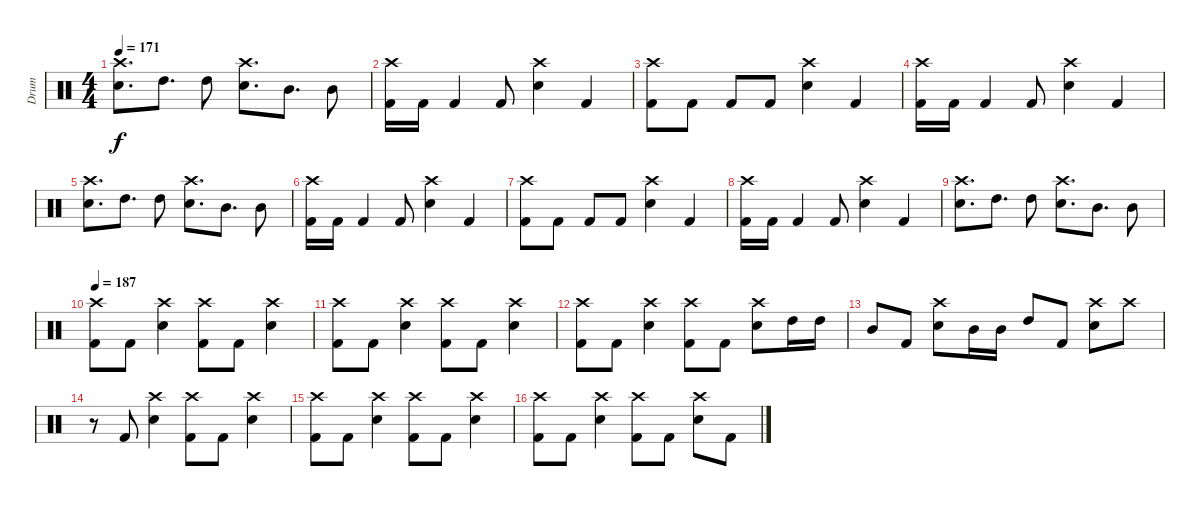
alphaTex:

\track ("Drum" "Drum") {instrument percussion}
\staff {score}
\articulation defaults
\ts (4 4)
\tempo 171
\clef neutral
\ks c
("Crash high (hit)" "Electric Snare (hit)").8{d dy f} "High Tom (hit)".8{d} "High Tom (hit)".8 ("Crash high (hit)" "Electric Snare (hit)").8{d} "Mid Tom (hit)".8{d} "Mid Tom (hit)".8 |
("Crash high (hit)" "Kick (hit) 2").16 "Kick (hit) 2".16 "Kick (hit) 2".4 "Kick (hit) 2".8 ("Crash high (hit)" "Electric Snare (hit)").4 "Kick (hit) 2".4 |
("Crash high (hit)" "Kick (hit) 2").8 "Kick (hit) 2".8 "Kick (hit) 2".8 "Kick (hit) 2".8 ("Crash high (hit)" "Electric Snare (hit)").4 "Kick (hit) 2".4 |
("Crash high (hit)" "Kick (hit) 2").16 "Kick (hit) 2".16 "Kick (hit) 2".4 "Kick (hit) 2".8 ("Crash high (hit)" "Electric Snare (hit)").4 "Kick (hit) 2".4 |
("Crash high (hit)" "Electric Snare (hit)").8{d} "High Tom (hit)".8{d} "High Tom (hit)".8 ("Crash high (hit)" "Electric Snare (hit)").8{d} "Mid Tom (hit)".8{d} "Mid Tom (hit)".8 |
("Crash high (hit)" "Kick (hit) 2").16 "Kick (hit) 2".16 "Kick (hit) 2".4 "Kick (hit) 2".8 ("Crash high (hit)" "Electric Snare (hit)").4 "Kick (hit) 2".4 |
("Crash high (hit)" "Kick (hit) 2").8 "Kick (hit) 2".8 "Kick (hit) 2".8 "Kick (hit) 2".8 ("Crash high (hit)" "Electric Snare (hit)").4 "Kick (hit) 2".4 |
("Crash high (hit)" "Kick (hit) 2").16 "Kick (hit) 2".16 "Kick (hit) 2".4 "Kick (hit) 2".8 ("Crash high (hit)" "Electric Snare (hit)").4 "Kick (hit) 2".4 |
("Crash high (hit)" "Electric Snare (hit)").8{d} "High Tom (hit)".8{d} "High Tom (hit)".8 ("Crash high (hit)" "Electric Snare (hit)").8{d} "Mid Tom (hit)".8{d} "Mid Tom (hit)".8 |
\tempo 187
("Crash high (hit)" "Kick (hit) 2").8 "Kick (hit) 2".8 ("Crash high (hit)" "Electric Snare (hit)").4 ("Crash high (hit)" "Kick (hit) 2").8 "Kick (hit) 2".8 ("Crash high (hit)" "Electric Snare (hit)").4 |
("Crash high (hit)" "Kick (hit) 2").8 "Kick (hit) 2".8 ("Crash high (hit)" "Electric Snare (hit)").4 ("Crash high (hit)" "Kick (hit) 2").8 "Kick (hit) 2".8 ("Crash high (hit)" "Electric Snare (hit)").4 |
("Crash high (hit)" "Kick (hit) 2").8 "Kick (hit) 2".8 ("Crash high (hit)" "Electric Snare (hit)").4 ("Crash high (hit)" "Kick (hit) 2").8 "Kick (hit) 2".8 ("Crash high (hit)" "Electric Snare (hit)").8 "High Tom (hit)".16 "High Tom (hit)".16 |
"Mid Tom (hit)".8 "Kick (hit) 2".8 ("Crash high (hit)" "Electric Snare (hit)").8 "Mid Tom (hit)".16 "Mid Tom (hit)".16 "High Tom (hit)".8 "Kick (hit) 2".8 ("Crash high (hit)" "Electric Snare (hit)").8 "Crash high (hit)".8 |
r.8 "Kick (hit) 2".8 ("Crash high (hit)" "Electric Snare (hit)").4 ("Crash high (hit)" "Kick (hit) 2").8 "Kick (hit) 2".8 ("Crash high (hit)" "Electric Snare (hit)").4 |
("Crash high (hit)" "Kick (hit) 2").8 "Kick (hit) 2".8 ("Crash high (hit)" "Electric Snare (hit)").4 ("Crash high (hit)" "Kick (hit) 2").8 "Kick (hit) 2".8 ("Crash high (hit)" "Electric Snare (hit)").4 |
("Crash high (hit)" "Kick (hit) 2").8 "Kick (hit) 2".8 ("Crash high (hit)" "Electric Snare (hit)").4 ("Crash high (hit)" "Kick (hit) 2").8 "Kick (hit) 2".8 ("Crash high (hit)" "Electric Snare (hit)").8 "Kick (hit) 2".8
